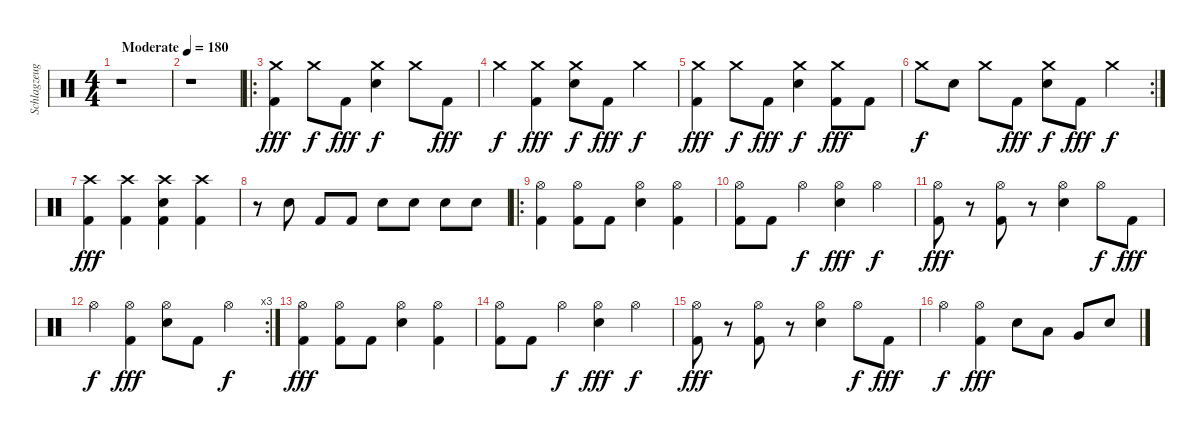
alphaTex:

\track ("Schlagzeug" "Schlagzeug") {instrument percussion}
\staff {score}
\articulation defaults
\ts (4 4)
\tempo (180 "Moderate")
\clef neutral
\ks c
r.1{dy fff} |
r.1 |
\ro
("Crash medium (hit)" "Kick (hit) 2").4 "Crash medium (hit)".8{dy f} "Kick (hit) 2".8{dy fff} ("Crash medium (hit)" "Electric Snare (hit)").4{dy f} "Crash medium (hit)".8 "Kick (hit) 2".8{dy fff} |
"Crash medium (hit)".4{dy f} ("Crash medium (hit)" "Kick (hit) 2").4{dy fff} ("Crash medium (hit)" "Electric Snare (hit)").8{dy f} "Kick (hit) 2".8{dy fff} "Crash medium (hit)".4{dy f} |
("Crash medium (hit)" "Kick (hit) 2").4{dy fff} "Crash medium (hit)".8{dy f} "Kick (hit) 2".8{dy fff} ("Crash medium (hit)" "Electric Snare (hit)").4{dy f} ("Crash medium (hit)" "Kick (hit) 2").8{dy fff} "Kick (hit) 2".8 |
\rc 2 "Crash medium (hit)".8{dy f} "Electric Snare (hit)".8 "Crash medium (hit)".8 "Kick (hit) 2".8{dy fff}
("Crash medium (hit)" "Electric Snare (hit)").8{dy f} "Kick (hit) 2".8{dy fff} "Crash medium (hit)".4{dy f} |
("Crash high (hit)" "Kick (hit) 2").4{dy fff} ("Crash high (hit)" "Kick (hit) 2").4 ("Crash high (hit)" "Kick (hit) 2" "Electric Snare (hit)").4 ("Crash high (hit)" "Kick (hit) 2").4 |
r.8 "Electric Snare (hit)".8 "Kick (hit) 2".8 "Kick (hit) 2".8 "Electric Snare (hit)".8 "Electric Snare (hit)".8 "Electric Snare (hit)".8 "Electric Snare (hit)".8 |
\ro
("Hi-Hat (open)" "Kick (hit) 2").4 ("Hi-Hat (open)" "Kick (hit) 2").8 "Kick (hit) 2".8 ("Hi-Hat (open)" "Electric Snare (hit)").4 ("Hi-Hat (open)" "Kick (hit) 2").4 |
("Hi-Hat (open)" "Kick (hit) 2").8 "Kick (hit) 2".8 "Hi-Hat (open)".4{dy f} ("Hi-Hat (open)" "Electric Snare (hit)").4{dy fff} "Hi-Hat (open)".4{dy f} |
("Hi-Hat (open)" "Kick (hit) 2").8{dy fff} r.8 ("Hi-Hat (open)" "Kick (hit) 2").8 r.8 ("Hi-Hat (open)" "Electric Snare (hit)").4 "Hi-Hat (open)".8{dy f} "Kick (hit) 2".8{dy fff} |
\rc 3 "Hi-Hat (open)".4{dy f}
("Hi-Hat (open)" "Kick (hit) 2").4{dy fff} ("Hi-Hat (open)" "Electric Snare (hit)").8 "Kick (hit) 2".8 "Hi-Hat (open)".4{dy f} |
("Hi-Hat (open)" "Kick (hit) 2").4{dy fff} ("Hi-Hat (open)" "Kick (hit) 2").8 "Kick (hit) 2".8 ("Hi-Hat (open)" "Electric Snare (hit)").4 ("Hi-Hat (open)" "Kick (hit) 2").4 |
("Hi-Hat (open)" "Kick (hit) 2").8 "Kick (hit) 2".8 "Hi-Hat (open)".4{dy f} ("Hi-Hat (open)" "Electric Snare (hit)").4{dy fff} "Hi-Hat (open)".4{dy f} |
("Hi-Hat (open)" "Kick (hit) 2").8{dy fff} r.8 ("Hi-Hat (open)" "Kick (hit) 2").8 r.8 ("Hi-Hat (open)" "Electric Snare (hit)").4 "Hi-Hat (open)".8{dy f} "Kick (hit) 2".8{dy fff} |
"Hi-Hat (open)".4{dy f} ("Hi-Hat (open)" "Kick (hit) 2").4{dy fff} "Electric Snare (hit)".8 "Low Tom (hit)".8 "Very Low Tom (hit)".8 "Electric Snare (hit)".8
